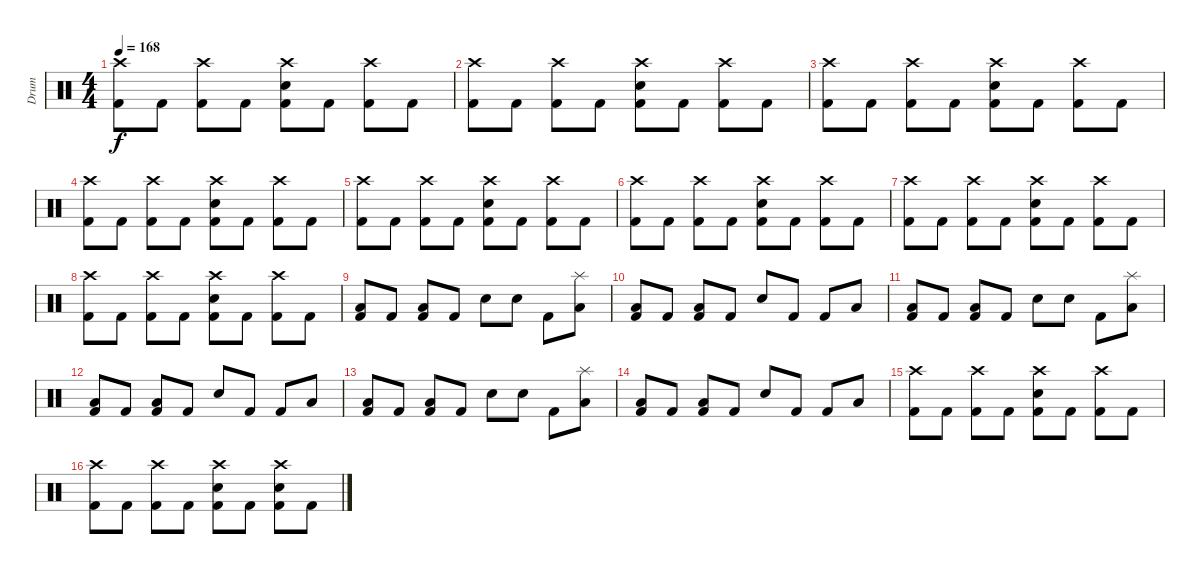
\track ("Drum" "Drum") {instrument percussion}
\staff {score}
\articulation defaults
\ts (4 4)
\tempo 168
\clef neutral
\ks c
("Crash high (hit)" "Kick (hit) 2").8{dy f} "Kick (hit) 2".8 ("Kick (hit) 2" "Crash high (hit)").8 "Kick (hit) 2".8 ("Crash high (hit)" "Kick (hit) 2" "Electric Snare (hit)").8 "Kick (hit) 2".8 ("Kick (hit) 2" "Crash high (hit)").8 "Kick (hit) 2".8 |
("Crash high (hit)" "Kick (hit) 2").8 "Kick (hit) 2".8 ("Kick (hit) 2" "Crash high (hit)").8 "Kick (hit) 2".8 ("Crash high (hit)" "Kick (hit) 2" "Electric Snare (hit)").8 "Kick (hit) 2".8 ("Kick (hit) 2" "Crash high (hit)").8 "Kick (hit) 2".8 |
("Crash high (hit)" "Kick (hit) 2").8 "Kick (hit) 2".8 ("Kick (hit) 2" "Crash high (hit)").8 "Kick (hit) 2".8 ("Crash high (hit)" "Kick (hit) 2" "Electric Snare (hit)").8 "Kick (hit) 2".8 ("Kick (hit) 2" "Crash high (hit)").8 "Kick (hit) 2".8 |
("Crash high (hit)" "Kick (hit) 2").8 "Kick (hit) 2".8 ("Kick (hit) 2" "Crash high (hit)").8 "Kick (hit) 2".8 ("Crash high (hit)" "Kick (hit) 2" "Electric Snare (hit)").8 "Kick (hit) 2".8 ("Kick (hit) 2" "Crash high (hit)").8 "Kick (hit) 2".8 |
("Crash high (hit)" "Kick (hit) 2").8 "Kick (hit) 2".8 ("Kick (hit) 2" "Crash high (hit)").8 "Kick (hit) 2".8 ("Crash high (hit)" "Kick (hit) 2" "Electric Snare (hit)").8 "Kick (hit) 2".8 ("Kick (hit) 2" "Crash high (hit)").8 "Kick (hit) 2".8 |
("Crash high (hit)" "Kick (hit) 2").8 "Kick (hit) 2".8 ("Kick (hit) 2" "Crash high (hit)").8 "Kick (hit) 2".8 ("Crash high (hit)" "Kick (hit) 2" "Electric Snare (hit)").8 "Kick (hit) 2".8 ("Kick (hit) 2" "Crash high (hit)").8 "Kick (hit) 2".8 |
("Crash high (hit)" "Kick (hit) 2").8 "Kick (hit) 2".8 ("Kick (hit) 2" "Crash high (hit)").8 "Kick (hit) 2".8 ("Crash high (hit)" "Kick (hit) 2" "Electric Snare (hit)").8 "Kick (hit) 2".8 ("Kick (hit) 2" "Crash high (hit)").8 "Kick (hit) 2".8 |
("Crash high (hit)" "Kick (hit) 2").8 "Kick (hit) 2".8 ("Kick (hit) 2" "Crash high (hit)").8 "Kick (hit) 2".8 ("Crash high (hit)" "Kick (hit) 2" "Electric Snare (hit)").8 "Kick (hit) 2".8 ("Kick (hit) 2" "Crash high (hit)").8 "Kick (hit) 2".8 |
("Low Tom (hit)" "Kick (hit) 2").8 "Kick (hit) 2".8 ("Low Floor Tom (hit)" "Kick (hit) 2").8 "Kick (hit) 2".8 "Electric Snare (hit)".8 "Electric Snare (hit)".8 "Kick (hit) 2".8 ("Low Tom (hit)" "Splash (hit)").8 |
("Low Tom (hit)" "Kick (hit) 2").8 "Kick (hit) 2".8 ("Low Floor Tom (hit)" "Kick (hit) 2").8 "Kick (hit) 2".8 "Electric Snare (hit)".8 "Kick (hit) 2".8 "Kick (hit) 2".8 "Low Floor Tom (hit)".8 |
("Low Tom (hit)" "Kick (hit) 2").8 "Kick (hit) 2".8 ("Low Floor Tom (hit)" "Kick (hit) 2").8 "Kick (hit) 2".8 "Electric Snare (hit)".8 "Electric Snare (hit)".8 "Kick (hit) 2".8 ("Low Tom (hit)" "Splash (hit)").8 |
("Low Tom (hit)" "Kick (hit) 2").8 "Kick (hit) 2".8 ("Low Floor Tom (hit)" "Kick (hit) 2").8 "Kick (hit) 2".8 "Electric Snare (hit)".8 "Kick (hit) 2".8 "Kick (hit) 2".8 "Low Floor Tom (hit)".8 |
("Low Tom (hit)" "Kick (hit) 2").8 "Kick (hit) 2".8 ("Low Floor Tom (hit)" "Kick (hit) 2").8 "Kick (hit) 2".8 "Electric Snare (hit)".8 "Electric Snare (hit)".8 "Kick (hit) 2".8 ("Low Tom (hit)" "Splash (hit)").8 |
("Low Tom (hit)" "Kick (hit) 2").8 "Kick (hit) 2".8 ("Low Floor Tom (hit)" "Kick (hit) 2").8 "Kick (hit) 2".8 "Electric Snare (hit)".8 "Kick (hit) 2".8 "Kick (hit) 2".8 "Low Floor Tom (hit)".8 |
("Crash high (hit)" "Kick (hit) 2").8 "Kick (hit) 2".8 ("Kick (hit) 2" "Crash high (hit)").8 "Kick (hit) 2".8 ("Crash high (hit)" "Kick (hit) 2" "Electric Snare (hit)").8 "Kick (hit) 2".8 ("Kick (hit) 2" "Crash high (hit)").8 "Kick (hit) 2".8 |
("Crash high (hit)" "Kick (hit) 2").8 "Kick (hit) 2".8 ("Kick (hit) 2" "Crash high (hit)").8 "Kick (hit) 2".8 ("Crash high (hit)" "Kick (hit) 2" "Electric Snare (hit)").8 "Kick (hit) 2".8 ("Crash high (hit)" "Kick (hit) 2" "Electric Snare (hit)").8 "Kick (hit) 2".8
